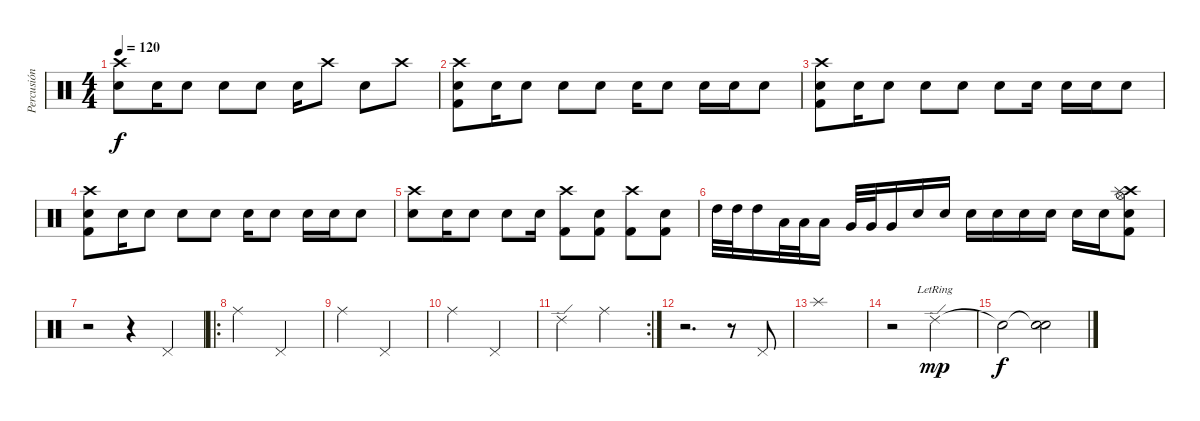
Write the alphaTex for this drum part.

\track ("Percusión" "Percusión") {instrument percussion}
\staff {score}
\articulation defaults
\ts (4 4)
\tempo 120
\clef neutral
\ks c
("Crash high (hit)" "Snare (hit) 2").8{dy f} "Snare (hit) 2".16 "Snare (hit) 2".8 "Snare (hit) 2".8 "Snare (hit) 2".8 "Snare (hit) 2".16 "Crash high (hit)".8 "Snare (hit) 2".8 "Crash high (hit)".8 |
("Crash high (hit)" "Snare (hit) 2" "Kick (hit) 2").8 "Snare (hit) 2".16 "Snare (hit) 2".8 "Snare (hit) 2".8 "Snare (hit) 2".8 "Snare (hit) 2".16 "Snare (hit) 2".8 "Snare (hit) 2".16 "Snare (hit) 2".16 "Snare (hit) 2".8 |
("Crash high (hit)" "Snare (hit) 2" "Kick (hit) 2").8 "Snare (hit) 2".16 "Snare (hit) 2".8 "Snare (hit) 2".8 "Snare (hit) 2".8 "Snare (hit) 2".8 "Snare (hit) 2".16 "Snare (hit) 2".16 "Snare (hit) 2".16 "Snare (hit) 2".8 |
("Crash high (hit)" "Snare (hit) 2" "Kick (hit) 2").8 "Snare (hit) 2".16 "Snare (hit) 2".8 "Snare (hit) 2".8 "Snare (hit) 2".8 "Snare (hit) 2".16 "Snare (hit) 2".8 "Snare (hit) 2".16 "Snare (hit) 2".16 "Snare (hit) 2".8 |
("Crash high (hit)" "Snare (hit) 2").8 "Snare (hit) 2".16 "Snare (hit) 2".8 "Snare (hit) 2".8 "Snare (hit) 2".16 ("Crash high (hit)" "Kick (hit) 2").8 ("Snare (hit) 2" "Kick (hit) 2").8 ("Crash high (hit)" "Kick (hit) 2").8 ("Snare (hit) 2" "Kick (hit) 2").8 |
"High Tom (hit)".32 "High Tom (hit)".32 "High Tom (hit)".16 "Low Tom (hit)".32 "Low Tom (hit)".32 "Low Tom (hit)".16 "Very Low Tom (hit)".32 "Very Low Tom (hit)".32 "Very Low Tom (hit)".16 "Snare (hit) 2".16 "Snare (hit) 2".16 "Snare (hit) 2".16 "Snare (hit) 2".16 "Snare (hit) 2".16 "Snare (hit) 2".16 "Snare (hit) 2".16 "Snare (hit) 2".16 ("Hi-Hat (open)" "Crash high (hit)" "Splash (hit)" "Kick (hit) 2" "Snare (hit) 2").8 |
r.2 r.4 "Pedal Hi-Hat (hit)".4 |
\ro "Ride (middle)".2 "Pedal Hi-Hat (hit)".2
|
"Ride (middle)".2 "Pedal Hi-Hat (hit)".2 |
"Ride (middle)".2 "Pedal Hi-Hat (hit)".2 |
\rc 2 "Ride (edge) 2".2 "Ride (middle)".2
|
r.2{d} r.8 "Pedal Hi-Hat (hit)".8 |
"Splash (hit)".1 |
r.2 "Ride (edge) 2"{lr}.2{dy mp} |
"Snare (hit)"{t}.2{dy f} ("Snare (hit)"{t} "Snare (hit)").2
